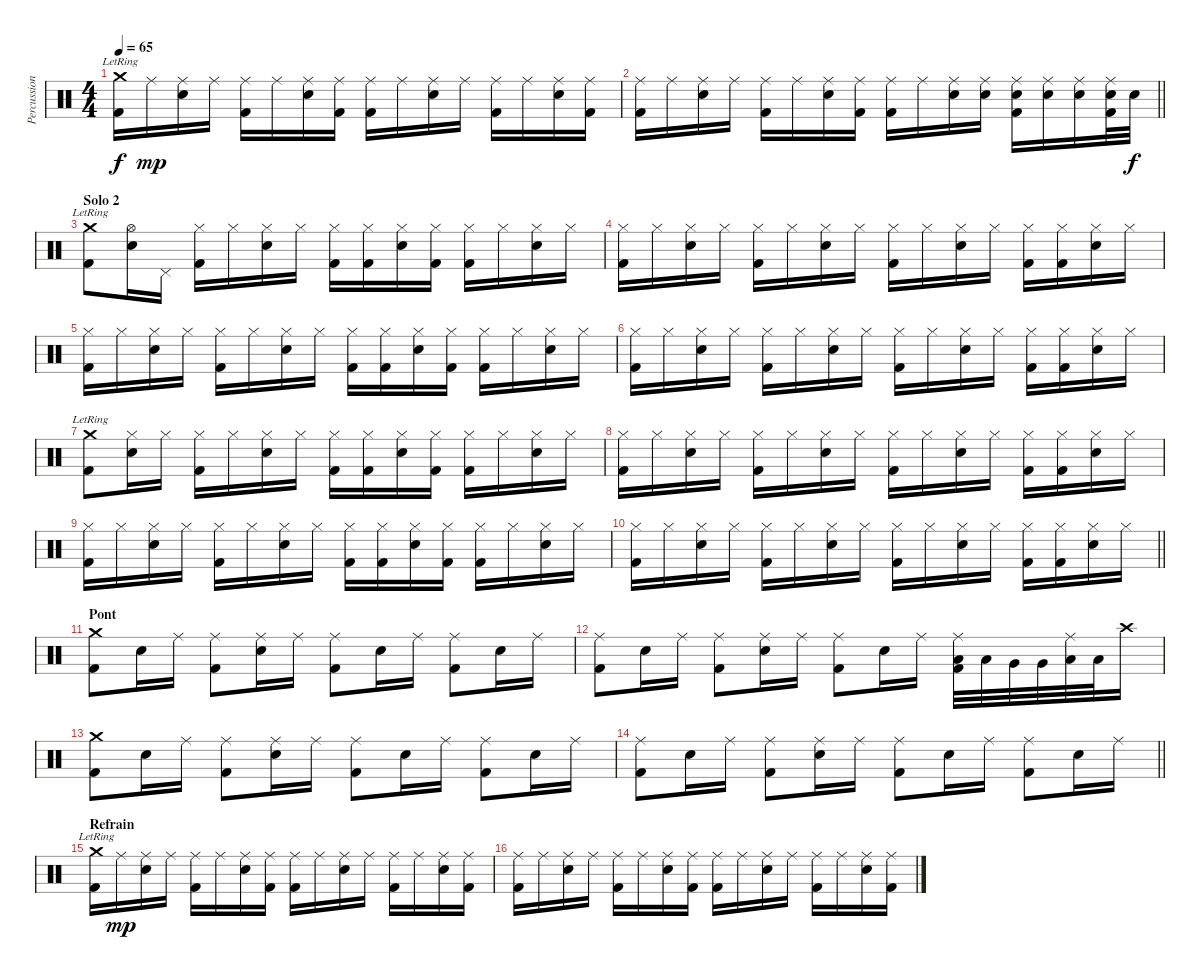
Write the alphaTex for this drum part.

\track ("Percussions" "Percussion") {instrument percussion}
\staff {score}
\articulation defaults
\ts (4 4)
\tempo 65
\clef neutral
\ks c
("Crash medium (hit)"{lr} "Kick (hit) 2").16{dy f} "Ride (middle)".16{dy mp} ("Ride (middle)" "Snare (hit) 2").16 "Ride (middle)".16 ("Ride (middle)" "Kick (hit) 2").16 "Ride (middle)".16 ("Ride (middle)" "Snare (hit) 2").16 ("Ride (middle)" "Kick (hit) 2").16 ("Ride (middle)" "Kick (hit) 2").16 "Ride (middle)".16 ("Ride (middle)" "Snare (hit) 2").16 "Ride (middle)".16 ("Ride (middle)" "Kick (hit) 2").16 "Ride (middle)".16 ("Ride (middle)" "Snare (hit) 2").16 ("Ride (middle)" "Kick (hit) 2").16 |
\barLineRight lightlight
("Ride (middle)" "Kick (hit) 2").16 "Ride (middle)".16 ("Ride (middle)" "Snare (hit) 2").16 "Ride (middle)".16 ("Ride (middle)" "Kick (hit) 2").16 "Ride (middle)".16 ("Ride (middle)" "Snare (hit) 2").16 ("Ride (middle)" "Kick (hit) 2").16 ("Ride (middle)" "Kick (hit) 2").16 "Ride (middle)".16 ("Ride (middle)" "Snare (hit) 2").16 ("Ride (middle)" "Snare (hit) 2").16 ("Ride (middle)" "Snare (hit) 2" "Kick (hit) 2").16 ("Ride (middle)" "Snare (hit) 2").16 ("Ride (middle)" "Snare (hit) 2").16 ("Ride (middle)" "Snare (hit) 2" "Kick (hit) 2").32 "Snare (hit) 2".32{dy f} |
\section ("" "Solo 2")
("Crash medium (hit)"{lr} "Kick (hit) 2").8 ("Hi-Hat (open)" "Snare (hit) 2").16 "Pedal Hi-Hat (hit)".16 ("Hi-Hat (closed)" "Kick (hit) 2").16 "Hi-Hat (closed)".16 ("Hi-Hat (closed)" "Snare (hit) 2").16 "Hi-Hat (closed)".16 ("Hi-Hat (closed)" "Kick (hit) 2").16 ("Hi-Hat (closed)" "Kick (hit) 2").16 ("Hi-Hat (closed)" "Snare (hit) 2").16 ("Hi-Hat (closed)" "Kick (hit) 2").16 ("Hi-Hat (closed)" "Kick (hit) 2").16 "Hi-Hat (closed)".16 ("Hi-Hat (closed)" "Snare (hit) 2").16 "Hi-Hat (closed)".16 |
("Hi-Hat (closed)" "Kick (hit) 2").16 "Hi-Hat (closed)".16 ("Hi-Hat (closed)" "Snare (hit) 2").16 "Hi-Hat (closed)".16 ("Hi-Hat (closed)" "Kick (hit) 2").16 "Hi-Hat (closed)".16 ("Hi-Hat (closed)" "Snare (hit) 2").16 "Hi-Hat (closed)".16 ("Hi-Hat (closed)" "Kick (hit) 2").16 "Hi-Hat (closed)".16 ("Hi-Hat (closed)" "Snare (hit) 2").16 "Hi-Hat (closed)".16 ("Hi-Hat (closed)" "Kick (hit) 2").16 ("Hi-Hat (closed)" "Kick (hit) 2").16 ("Hi-Hat (closed)" "Snare (hit) 2").16 "Hi-Hat (closed)".16 |
("Hi-Hat (closed)" "Kick (hit) 2").16 "Hi-Hat (closed)".16 ("Hi-Hat (closed)" "Snare (hit) 2").16 "Hi-Hat (closed)".16 ("Hi-Hat (closed)" "Kick (hit) 2").16 "Hi-Hat (closed)".16 ("Hi-Hat (closed)" "Snare (hit) 2").16 "Hi-Hat (closed)".16 ("Hi-Hat (closed)" "Kick (hit) 2").16 ("Hi-Hat (closed)" "Kick (hit) 2").16 ("Hi-Hat (closed)" "Snare (hit) 2").16 ("Hi-Hat (closed)" "Kick (hit) 2").16 ("Hi-Hat (closed)" "Kick (hit) 2").16 "Hi-Hat (closed)".16 ("Hi-Hat (closed)" "Snare (hit) 2").16 "Hi-Hat (closed)".16 |
("Hi-Hat (closed)" "Kick (hit) 2").16 "Hi-Hat (closed)".16 ("Hi-Hat (closed)" "Snare (hit) 2").16 "Hi-Hat (closed)".16 ("Hi-Hat (closed)" "Kick (hit) 2").16 "Hi-Hat (closed)".16 ("Hi-Hat (closed)" "Snare (hit) 2").16 "Hi-Hat (closed)".16 ("Hi-Hat (closed)" "Kick (hit) 2").16 "Hi-Hat (closed)".16 ("Hi-Hat (closed)" "Snare (hit) 2").16 "Hi-Hat (closed)".16 ("Hi-Hat (closed)" "Kick (hit) 2").16 ("Hi-Hat (closed)" "Kick (hit) 2").16 ("Hi-Hat (closed)" "Snare (hit) 2").16 "Hi-Hat (closed)".16 |
("Crash medium (hit)"{lr} "Kick (hit) 2").8 ("Hi-Hat (closed)" "Snare (hit) 2").16 "Hi-Hat (closed)".16 ("Hi-Hat (closed)" "Kick (hit) 2").16 "Hi-Hat (closed)".16 ("Hi-Hat (closed)" "Snare (hit) 2").16 "Hi-Hat (closed)".16 ("Hi-Hat (closed)" "Kick (hit) 2").16 ("Hi-Hat (closed)" "Kick (hit) 2").16 ("Hi-Hat (closed)" "Snare (hit) 2").16 ("Hi-Hat (closed)" "Kick (hit) 2").16 ("Hi-Hat (closed)" "Kick (hit) 2").16 "Hi-Hat (closed)".16 ("Hi-Hat (closed)" "Snare (hit) 2").16 "Hi-Hat (closed)".16 |
("Hi-Hat (closed)" "Kick (hit) 2").16 "Hi-Hat (closed)".16 ("Hi-Hat (closed)" "Snare (hit) 2").16 "Hi-Hat (closed)".16 ("Hi-Hat (closed)" "Kick (hit) 2").16 "Hi-Hat (closed)".16 ("Hi-Hat (closed)" "Snare (hit) 2").16 "Hi-Hat (closed)".16 ("Hi-Hat (closed)" "Kick (hit) 2").16 "Hi-Hat (closed)".16 ("Hi-Hat (closed)" "Snare (hit) 2").16 "Hi-Hat (closed)".16 ("Hi-Hat (closed)" "Kick (hit) 2").16 ("Hi-Hat (closed)" "Kick (hit) 2").16 ("Hi-Hat (closed)" "Snare (hit) 2").16 "Hi-Hat (closed)".16 |
("Hi-Hat (closed)" "Kick (hit) 2").16 "Hi-Hat (closed)".16 ("Hi-Hat (closed)" "Snare (hit) 2").16 "Hi-Hat (closed)".16 ("Hi-Hat (closed)" "Kick (hit) 2").16 "Hi-Hat (closed)".16 ("Hi-Hat (closed)" "Snare (hit) 2").16 "Hi-Hat (closed)".16 ("Hi-Hat (closed)" "Kick (hit) 2").16 ("Hi-Hat (closed)" "Kick (hit) 2").16 ("Hi-Hat (closed)" "Snare (hit) 2").16 ("Hi-Hat (closed)" "Kick (hit) 2").16 ("Hi-Hat (closed)" "Kick (hit) 2").16 "Hi-Hat (closed)".16 ("Hi-Hat (closed)" "Snare (hit) 2").16 "Hi-Hat (closed)".16 |
\barLineRight lightlight
("Hi-Hat (closed)" "Kick (hit) 2").16 "Hi-Hat (closed)".16 ("Hi-Hat (closed)" "Snare (hit) 2").16 "Hi-Hat (closed)".16 ("Hi-Hat (closed)" "Kick (hit) 2").16 "Hi-Hat (closed)".16 ("Hi-Hat (closed)" "Snare (hit) 2").16 "Hi-Hat (closed)".16 ("Hi-Hat (closed)" "Kick (hit) 2").16 "Hi-Hat (closed)".16 ("Hi-Hat (closed)" "Snare (hit) 2").16 "Hi-Hat (closed)".16 ("Hi-Hat (closed)" "Kick (hit) 2").16 ("Hi-Hat (closed)" "Kick (hit) 2").16 ("Hi-Hat (closed)" "Snare (hit) 2").16 "Hi-Hat (closed)".16 |
\section ("" "Pont")
("Crash medium (hit)" "Kick (hit) 2").8 "Snare (hit) 2".16 "Ride (middle)".16 ("Ride (middle)" "Kick (hit) 2").8 ("Ride (middle)" "Snare (hit) 2").16 "Ride (middle)".16 ("Ride (middle)" "Kick (hit) 2").8 "Snare (hit) 2".16 "Ride (middle)".16 ("Ride (middle)" "Kick (hit) 2").8 "Snare (hit) 2".16 "Ride (middle)".16 |
("Ride (middle)" "Kick (hit) 2").8 "Snare (hit) 2".16 "Ride (middle)".16 ("Ride (middle)" "Kick (hit) 2").8 ("Ride (middle)" "Snare (hit) 2").16 "Ride (middle)".16 ("Ride (middle)" "Kick (hit) 2").8 "Snare (hit) 2".16 "Ride (middle)".16 ("Ride (middle)" "Low Tom (hit)" "Kick (hit) 2").32 "Low Tom (hit)".32 "Very Low Tom (hit)".32 "Very Low Tom (hit)".32 ("Ride (middle)" "Low Floor Tom (hit)").32 "Low Floor Tom (hit)".32 "Crash high (hit)".16 |
("Crash medium (hit)" "Kick (hit) 2").8 "Snare (hit) 2".16 "Ride (middle)".16 ("Ride (middle)" "Kick (hit) 2").8 ("Ride (middle)" "Snare (hit) 2").16 "Ride (middle)".16 ("Ride (middle)" "Kick (hit) 2").8 "Snare (hit) 2".16 "Ride (middle)".16 ("Ride (middle)" "Kick (hit) 2").8 "Snare (hit) 2".16 "Ride (middle)".16 |
\barLineRight lightlight
("Ride (middle)" "Kick (hit) 2").8 "Snare (hit) 2".16 "Ride (middle)".16 ("Ride (middle)" "Kick (hit) 2").8 ("Ride (middle)" "Snare (hit) 2").16 "Ride (middle)".16 ("Ride (middle)" "Kick (hit) 2").8 "Snare (hit) 2".16 "Ride (middle)".16 ("Ride (middle)" "Kick (hit) 2").8 "Snare (hit) 2".16 "Ride (middle)".16 |
\section ("" "Refrain")
("Crash medium (hit)"{lr} "Kick (hit) 2").16 "Ride (middle)".16{dy mp} ("Ride (middle)" "Snare (hit) 2").16 "Ride (middle)".16 ("Ride (middle)" "Kick (hit) 2").16 "Ride (middle)".16 ("Ride (middle)" "Snare (hit) 2").16 ("Ride (middle)" "Kick (hit) 2").16 ("Ride (middle)" "Kick (hit) 2").16 "Ride (middle)".16 ("Ride (middle)" "Snare (hit) 2").16 "Ride (middle)".16 ("Ride (middle)" "Kick (hit) 2").16 "Ride (middle)".16 ("Ride (middle)" "Snare (hit) 2").16 ("Ride (middle)" "Kick (hit) 2").16 |
("Ride (middle)" "Kick (hit) 2").16 "Ride (middle)".16 ("Ride (middle)" "Snare (hit) 2").16 "Ride (middle)".16 ("Ride (middle)" "Kick (hit) 2").16 "Ride (middle)".16 ("Ride (middle)" "Snare (hit) 2").16 ("Ride (middle)" "Kick (hit) 2").16 ("Ride (middle)" "Kick (hit) 2").16 "Ride (middle)".16 ("Ride (middle)" "Snare (hit) 2").16 "Ride (middle)".16 ("Ride (middle)" "Kick (hit) 2").16 "Ride (middle)".16 ("Ride (middle)" "Snare (hit) 2").16 ("Ride (middle)" "Kick (hit) 2").16
